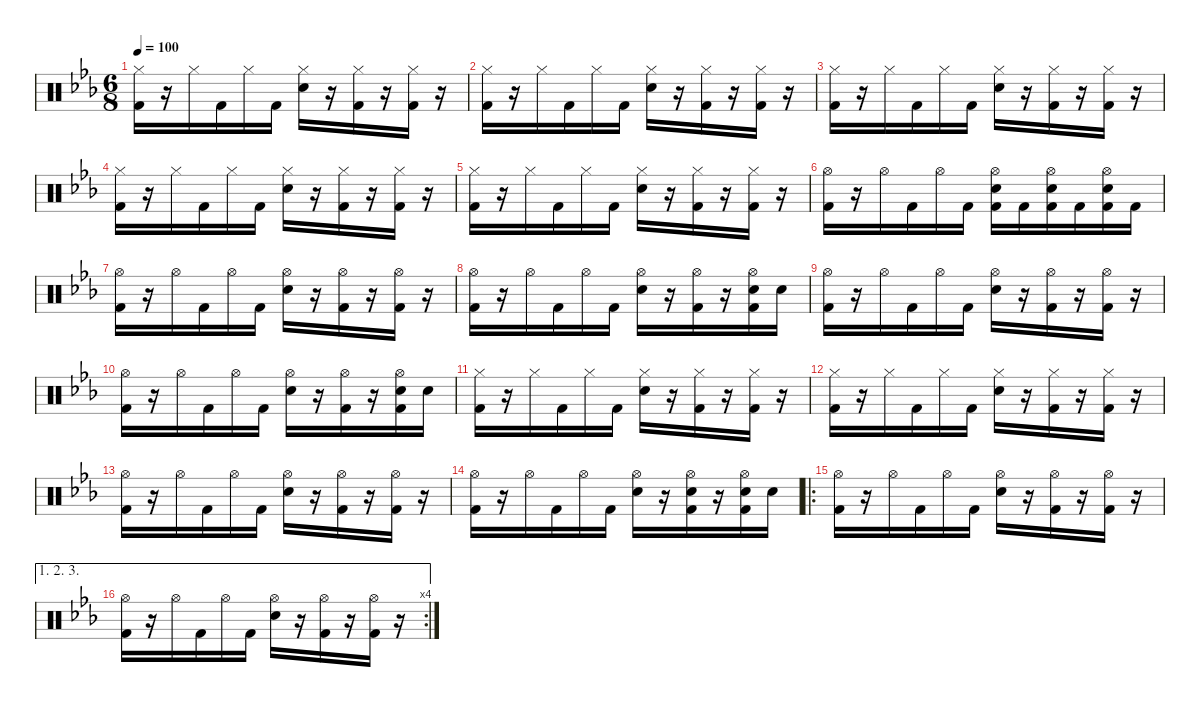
\defaultSystemsLayout 4
\hideDynamics
\bracketExtendMode nobrackets
\singleTrackTrackNamePolicy hidden
\multiTrackTrackNamePolicy hidden
\firstSystemTrackNameMode fullname
\firstSystemTrackNameOrientation horizontal
\otherSystemsTrackNameOrientation horizontal
\track ("Drums" "drm.") {instrument percussion}
\staff {score}
\articulation defaults
\ts (6 8)
\tempo 100
\clef neutral
\ks eb
("Hi-Hat (closed)"{acc forcenatural} "Kick (hit) 2"{acc forcenatural}).16{dy f beam Down} r.16{beam Down} "Hi-Hat (closed)"{acc forcenatural}.16{beam Down} "Kick (hit) 2"{acc forcenatural}.16{beam Down} "Hi-Hat (closed)"{acc forcenatural}.16{beam Down} "Kick (hit) 2"{acc forcenatural}.16{beam Down} ("Hi-Hat (closed)"{acc forcenatural} "Snare (hit) 2"{acc forcenatural}).16{beam Down} r.16{beam Down} ("Hi-Hat (closed)"{acc forcenatural} "Kick (hit) 2"{acc forcenatural}).16{beam Down} r.16{beam Down} ("Hi-Hat (closed)"{acc forcenatural} "Kick (hit) 2"{acc forcenatural}).16{beam Down} r.16{beam Down} |
("Hi-Hat (closed)"{acc forcenatural} "Kick (hit) 2"{acc forcenatural}).16{beam Down} r.16{beam Down} "Hi-Hat (closed)"{acc forcenatural}.16{beam Down} "Kick (hit) 2"{acc forcenatural}.16{beam Down} "Hi-Hat (closed)"{acc forcenatural}.16{beam Down} "Kick (hit) 2"{acc forcenatural}.16{beam Down} ("Hi-Hat (closed)"{acc forcenatural} "Snare (hit) 2"{acc forcenatural}).16{beam Down} r.16{beam Down} ("Hi-Hat (closed)"{acc forcenatural} "Kick (hit) 2"{acc forcenatural}).16{beam Down} r.16{beam Down} ("Hi-Hat (closed)"{acc forcenatural} "Kick (hit) 2"{acc forcenatural}).16{beam Down} r.16{beam Down} |
("Hi-Hat (closed)"{acc forcenatural} "Kick (hit) 2"{acc forcenatural}).16{beam Down} r.16{beam Down} "Hi-Hat (closed)"{acc forcenatural}.16{beam Down} "Kick (hit) 2"{acc forcenatural}.16{beam Down} "Hi-Hat (closed)"{acc forcenatural}.16{beam Down} "Kick (hit) 2"{acc forcenatural}.16{beam Down} ("Hi-Hat (closed)"{acc forcenatural} "Snare (hit) 2"{acc forcenatural}).16{beam Down} r.16{beam Down} ("Hi-Hat (closed)"{acc forcenatural} "Kick (hit) 2"{acc forcenatural}).16{beam Down} r.16{beam Down} ("Hi-Hat (closed)"{acc forcenatural} "Kick (hit) 2"{acc forcenatural}).16{beam Down} r.16{beam Down} |
("Hi-Hat (closed)"{acc forcenatural} "Kick (hit) 2"{acc forcenatural}).16{beam Down} r.16{beam Down} "Hi-Hat (closed)"{acc forcenatural}.16{beam Down} "Kick (hit) 2"{acc forcenatural}.16{beam Down} "Hi-Hat (closed)"{acc forcenatural}.16{beam Down} "Kick (hit) 2"{acc forcenatural}.16{beam Down} ("Hi-Hat (closed)"{acc forcenatural} "Snare (hit) 2"{acc forcenatural}).16{beam Down} r.16{beam Down} ("Hi-Hat (closed)"{acc forcenatural} "Kick (hit) 2"{acc forcenatural}).16{beam Down} r.16{beam Down} ("Hi-Hat (closed)"{acc forcenatural} "Kick (hit) 2"{acc forcenatural}).16{beam Down} r.16{beam Down} |
("Hi-Hat (closed)"{acc forcenatural} "Kick (hit) 2"{acc forcenatural}).16{beam Down} r.16{beam Down} "Hi-Hat (closed)"{acc forcenatural}.16{beam Down} "Kick (hit) 2"{acc forcenatural}.16{beam Down} "Hi-Hat (closed)"{acc forcenatural}.16{beam Down} "Kick (hit) 2"{acc forcenatural}.16{beam Down} ("Hi-Hat (closed)"{acc forcenatural} "Snare (hit) 2"{acc forcenatural}).16{beam Down} r.16{beam Down} ("Hi-Hat (closed)"{acc forcenatural} "Kick (hit) 2"{acc forcenatural}).16{beam Down} r.16{beam Down} ("Hi-Hat (closed)"{acc forcenatural} "Kick (hit) 2"{acc forcenatural}).16{beam Down} r.16{beam Down} |
("Hi-Hat (open)"{acc forcenatural} "Kick (hit) 2"{acc forcenatural}).16{beam Down} r.16{beam Down} "Hi-Hat (open)"{acc forcenatural}.16{beam Down} "Kick (hit) 2"{acc forcenatural}.16{beam Down} "Hi-Hat (open)"{acc forcenatural}.16{beam Down} "Kick (hit) 2"{acc forcenatural}.16{beam Down} ("Hi-Hat (open)"{acc forcenatural} "Snare (hit) 2"{acc forcenatural} "Kick (hit) 2"{acc forcenatural}).16{beam Down} "Kick (hit) 2"{acc forcenatural}.16{beam Down} ("Hi-Hat (open)"{acc forcenatural} "Snare (hit) 2"{acc forcenatural} "Kick (hit) 2"{acc forcenatural}).16{beam Down} "Kick (hit) 2"{acc forcenatural}.16{beam Down} ("Hi-Hat (open)"{acc forcenatural} "Snare (hit) 2"{acc forcenatural} "Kick (hit) 2"{acc forcenatural}).16{beam Down} "Kick (hit) 2"{acc forcenatural}.16{beam Down} |
("Hi-Hat (open)"{acc forcenatural} "Kick (hit) 2"{acc forcenatural}).16{beam Down} r.16{beam Down} "Hi-Hat (open)"{acc forcenatural}.16{beam Down} "Kick (hit) 2"{acc forcenatural}.16{beam Down} "Hi-Hat (open)"{acc forcenatural}.16{beam Down} "Kick (hit) 2"{acc forcenatural}.16{beam Down} ("Hi-Hat (open)"{acc forcenatural} "Snare (hit) 2"{acc forcenatural}).16{beam Down} r.16{beam Down} ("Hi-Hat (open)"{acc forcenatural} "Kick (hit) 2"{acc forcenatural}).16{beam Down} r.16{beam Down} ("Hi-Hat (open)"{acc forcenatural} "Kick (hit) 2"{acc forcenatural}).16{beam Down} r.16{beam Down} |
("Hi-Hat (open)"{acc forcenatural} "Kick (hit) 2"{acc forcenatural}).16{beam Down} r.16{beam Down} "Hi-Hat (open)"{acc forcenatural}.16{beam Down} "Kick (hit) 2"{acc forcenatural}.16{beam Down} "Hi-Hat (open)"{acc forcenatural}.16{beam Down} "Kick (hit) 2"{acc forcenatural}.16{beam Down} ("Hi-Hat (open)"{acc forcenatural} "Snare (hit) 2"{acc forcenatural}).16{beam Down} r.16{beam Down} ("Hi-Hat (open)"{acc forcenatural} "Kick (hit) 2"{acc forcenatural}).16{beam Down} r.16{beam Down} ("Hi-Hat (open)"{acc forcenatural} "Snare (hit) 2"{acc forcenatural} "Kick (hit) 2"{acc forcenatural}).16{beam Down} "Snare (hit) 2"{acc forcenatural}.16{beam Down} |
("Hi-Hat (open)"{acc forcenatural} "Kick (hit) 2"{acc forcenatural}).16{beam Down} r.16{beam Down} "Hi-Hat (open)"{acc forcenatural}.16{beam Down} "Kick (hit) 2"{acc forcenatural}.16{beam Down} "Hi-Hat (open)"{acc forcenatural}.16{beam Down} "Kick (hit) 2"{acc forcenatural}.16{beam Down} ("Hi-Hat (open)"{acc forcenatural} "Snare (hit) 2"{acc forcenatural}).16{beam Down} r.16{beam Down} ("Hi-Hat (open)"{acc forcenatural} "Kick (hit) 2"{acc forcenatural}).16{beam Down} r.16{beam Down} ("Hi-Hat (open)"{acc forcenatural} "Kick (hit) 2"{acc forcenatural}).16{beam Down} r.16{beam Down} |
("Hi-Hat (open)"{acc forcenatural} "Kick (hit) 2"{acc forcenatural}).16{beam Down} r.16{beam Down} "Hi-Hat (open)"{acc forcenatural}.16{beam Down} "Kick (hit) 2"{acc forcenatural}.16{beam Down} "Hi-Hat (open)"{acc forcenatural}.16{beam Down} "Kick (hit) 2"{acc forcenatural}.16{beam Down} ("Hi-Hat (open)"{acc forcenatural} "Snare (hit) 2"{acc forcenatural}).16{beam Down} r.16{beam Down} ("Hi-Hat (open)"{acc forcenatural} "Kick (hit) 2"{acc forcenatural}).16{beam Down} r.16{beam Down} ("Hi-Hat (open)"{acc forcenatural} "Snare (hit) 2"{acc forcenatural} "Kick (hit) 2"{acc forcenatural}).16{beam Down} "Snare (hit) 2"{acc forcenatural}.16{beam Down} |
("Hi-Hat (closed)"{acc forcenatural} "Kick (hit) 2"{acc forcenatural}).16{beam Down} r.16{beam Down} "Hi-Hat (closed)"{acc forcenatural}.16{beam Down} "Kick (hit) 2"{acc forcenatural}.16{beam Down} "Hi-Hat (closed)"{acc forcenatural}.16{beam Down} "Kick (hit) 2"{acc forcenatural}.16{beam Down} ("Hi-Hat (closed)"{acc forcenatural} "Snare (hit) 2"{acc forcenatural}).16{beam Down} r.16{beam Down} ("Hi-Hat (closed)"{acc forcenatural} "Kick (hit) 2"{acc forcenatural}).16{beam Down} r.16{beam Down} ("Hi-Hat (closed)"{acc forcenatural} "Kick (hit) 2"{acc forcenatural}).16{beam Down} r.16{beam Down} |
("Hi-Hat (closed)"{acc forcenatural} "Kick (hit) 2"{acc forcenatural}).16{beam Down} r.16{beam Down} "Hi-Hat (closed)"{acc forcenatural}.16{beam Down} "Kick (hit) 2"{acc forcenatural}.16{beam Down} "Hi-Hat (closed)"{acc forcenatural}.16{beam Down} "Kick (hit) 2"{acc forcenatural}.16{beam Down} ("Hi-Hat (closed)"{acc forcenatural} "Snare (hit) 2"{acc forcenatural}).16{beam Down} r.16{beam Down} ("Hi-Hat (closed)"{acc forcenatural} "Kick (hit) 2"{acc forcenatural}).16{beam Down} r.16{beam Down} ("Hi-Hat (closed)"{acc forcenatural} "Kick (hit) 2"{acc forcenatural}).16{beam Down} r.16{beam Down} |
("Hi-Hat (open)"{acc forcenatural} "Kick (hit) 2"{acc forcenatural}).16{beam Down} r.16{beam Down} "Hi-Hat (open)"{acc forcenatural}.16{beam Down} "Kick (hit) 2"{acc forcenatural}.16{beam Down} "Hi-Hat (open)"{acc forcenatural}.16{beam Down} "Kick (hit) 2"{acc forcenatural}.16{beam Down} ("Hi-Hat (open)"{acc forcenatural} "Snare (hit) 2"{acc forcenatural}).16{beam Down} r.16{beam Down} ("Hi-Hat (open)"{acc forcenatural} "Kick (hit) 2"{acc forcenatural}).16{beam Down} r.16{beam Down} ("Hi-Hat (open)"{acc forcenatural} "Kick (hit) 2"{acc forcenatural}).16{beam Down} r.16{beam Down} |
("Hi-Hat (open)"{acc forcenatural} "Kick (hit) 2"{acc forcenatural}).16{beam Down} r.16{beam Down} "Hi-Hat (open)"{acc forcenatural}.16{beam Down} "Kick (hit) 2"{acc forcenatural}.16{beam Down} "Hi-Hat (open)"{acc forcenatural}.16{beam Down} "Kick (hit) 2"{acc forcenatural}.16{beam Down} ("Hi-Hat (open)"{acc forcenatural} "Snare (hit) 2"{acc forcenatural}).16{beam Down} r.16{beam Down} ("Hi-Hat (open)"{acc forcenatural} "Snare (hit) 2"{acc forcenatural} "Kick (hit) 2"{acc forcenatural}).16{beam Down} r.16{beam Down} ("Hi-Hat (open)"{acc forcenatural} "Snare (hit) 2"{acc forcenatural} "Kick (hit) 2"{acc forcenatural}).16{beam Down} "Snare (hit) 2"{acc forcenatural}.16{beam Down} |
\ro
("Hi-Hat (open)"{acc forcenatural} "Kick (hit) 2"{acc forcenatural}).16{beam Down} r.16{beam Down} "Hi-Hat (open)"{acc forcenatural}.16{beam Down} "Kick (hit) 2"{acc forcenatural}.16{beam Down} "Hi-Hat (open)"{acc forcenatural}.16{beam Down} "Kick (hit) 2"{acc forcenatural}.16{beam Down} ("Hi-Hat (open)"{acc forcenatural} "Snare (hit) 2"{acc forcenatural}).16{beam Down} r.16{beam Down} ("Hi-Hat (open)"{acc forcenatural} "Kick (hit) 2"{acc forcenatural}).16{beam Down} r.16{beam Down} ("Hi-Hat (open)"{acc forcenatural} "Kick (hit) 2"{acc forcenatural}).16{beam Down} r.16{beam Down} |
\ae (1 2 3)
\rc 4
("Hi-Hat (open)"{acc forcenatural} "Kick (hit) 2"{acc forcenatural}).16{beam Down} r.16{beam Down} "Hi-Hat (open)"{acc forcenatural}.16{beam Down} "Kick (hit) 2"{acc forcenatural}.16{beam Down} "Hi-Hat (open)"{acc forcenatural}.16{beam Down} "Kick (hit) 2"{acc forcenatural}.16{beam Down} ("Hi-Hat (open)"{acc forcenatural} "Snare (hit) 2"{acc forcenatural}).16{beam Down} r.16{beam Down} ("Hi-Hat (open)"{acc forcenatural} "Kick (hit) 2"{acc forcenatural}).16{beam Down} r.16{beam Down} ("Hi-Hat (open)"{acc forcenatural} "Kick (hit) 2"{acc forcenatural}).16{beam Down} r.16{beam Down}
